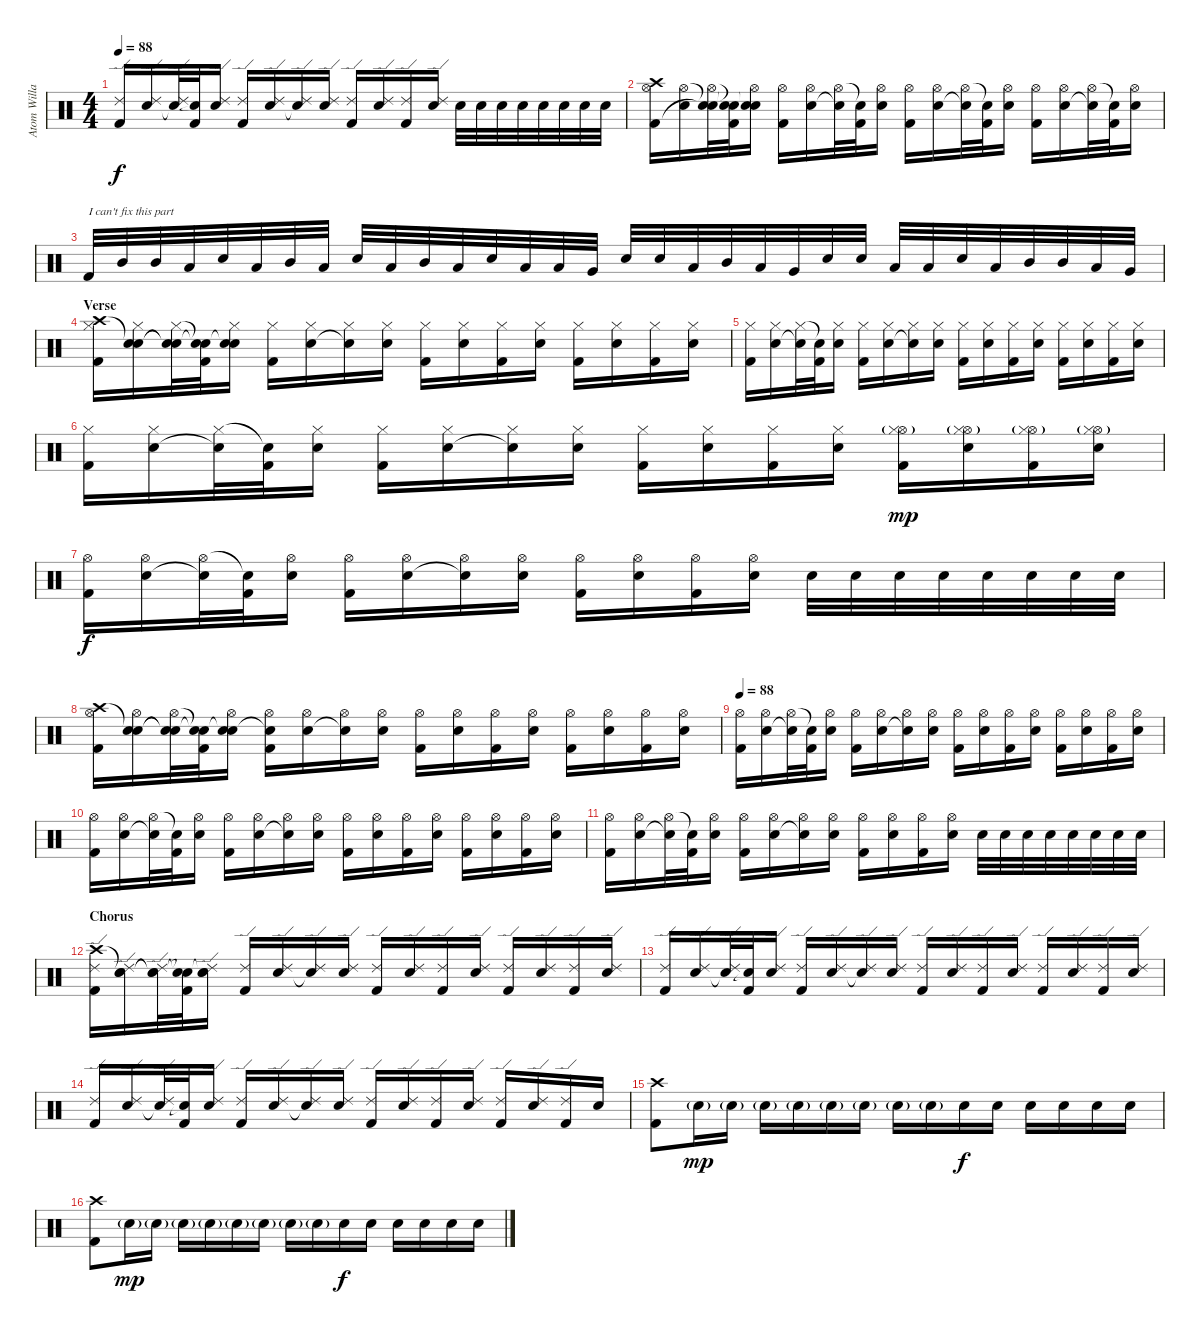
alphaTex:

\track ("Atom Willard (Drums)" "Atom Willa") {instrument percussion}
\staff {score}
\articulation defaults
\ts (4 4)
\tempo 88
\clef neutral
\ks c
("Ride (edge) 2" "Kick (hit) 2").16{dy f} ("Ride (edge) 2" "Electric Snare (hit)").16 ("Ride (edge) 2" "Snare (hit)"{t}).32 ("Snare (hit)"{t} "Kick (hit) 2").32 ("Ride (edge) 2" "Electric Snare (hit)").16 ("Ride (edge) 2" "Kick (hit) 2").16 ("Ride (edge) 2" "Electric Snare (hit)").16 ("Ride (edge) 2" "Snare (hit)"{t}).16 ("Ride (edge) 2" "Electric Snare (hit)").16 ("Ride (edge) 2" "Kick (hit) 2").16 ("Ride (edge) 2" "Electric Snare (hit)").16 ("Ride (edge) 2" "Kick (hit) 2").16 ("Ride (edge) 2" "Electric Snare (hit)").16 "Electric Snare (hit)".32 "Electric Snare (hit)".32 "Electric Snare (hit)".32 "Electric Snare (hit)".32 "Electric Snare (hit)".32 "Electric Snare (hit)".32 "Electric Snare (hit)".32 "Electric Snare (hit)".32 |
("Crash high (hit)" "Hi-Hat (open)" "Kick (hit) 2").16 ("Hi-Hat (open)" "Electric Snare (hit)").16 ("Snare (hit)"{t} "Hi-Hat (open)" "Snare (hit)"{t}).32 ("Snare (hit)"{t} "Snare (hit)"{t} "Kick (hit) 2").32 ("Snare (hit)"{t} "Hi-Hat (open)" "Electric Snare (hit)").16 ("Hi-Hat (open)" "Kick (hit) 2").16 ("Hi-Hat (open)" "Electric Snare (hit)").16 ("Hi-Hat (open)" "Snare (hit)"{t}).32 ("Snare (hit)"{t} "Kick (hit) 2").32 ("Hi-Hat (open)" "Electric Snare (hit)").16 ("Hi-Hat (open)" "Kick (hit) 2").16 ("Hi-Hat (open)" "Electric Snare (hit)").16 ("Hi-Hat (open)" "Snare (hit)"{t}).32 ("Snare (hit)"{t} "Kick (hit) 2").32 ("Hi-Hat (open)" "Electric Snare (hit)").16 ("Hi-Hat (open)" "Kick (hit) 2").16 ("Hi-Hat (open)" "Electric Snare (hit)").16 ("Hi-Hat (open)" "Snare (hit)"{t}).32 ("Snare (hit)"{t} "Kick (hit) 2").32 ("Hi-Hat (open)" "Electric Snare (hit)").16 |
"Kick (hit) 2".32{txt "I can't fix this part"} "Mid Tom (hit)".32 "Mid Tom (hit)".32 "Low Tom (hit)".32 "Electric Snare (hit)".32 "Low Tom (hit)".32 "Mid Tom (hit)".32 "Low Tom (hit)".32 "Electric Snare (hit)".32 "Low Tom (hit)".32 "Mid Tom (hit)".32 "Low Tom (hit)".32 "Electric Snare (hit)".32 "Low Tom (hit)".32 "Low Tom (hit)".32 "Very Low Tom (hit)".32 "Electric Snare (hit)".32 "Electric Snare (hit)".32 "Low Tom (hit)".32 "Mid Tom (hit)".32 "Low Tom (hit)".32 "Very Low Tom (hit)".32 "Electric Snare (hit)".32 "Electric Snare (hit)".32 "Low Tom (hit)".32 "Low Tom (hit)".32 "Electric Snare (hit)".32 "Low Tom (hit)".32 "Mid Tom (hit)".32 "Mid Tom (hit)".32 "Low Tom (hit)".32 "Very Low Tom (hit)".32 |
\section ("" "Verse")
("Crash high (hit)" "Hi-Hat (closed)" "Kick (hit) 2").16 ("Snare (hit)"{t} "Hi-Hat (closed)" "Electric Snare (hit)").16 ("Snare (hit)"{t} "Hi-Hat (closed)" "Snare (hit)"{t}).32 ("Snare (hit)"{t} "Snare (hit)"{t} "Kick (hit) 2").32 ("Snare (hit)"{t} "Hi-Hat (closed)" "Electric Snare (hit)").16 ("Hi-Hat (closed)" "Kick (hit) 2").16 ("Hi-Hat (closed)" "Electric Snare (hit)").16 ("Hi-Hat (closed)" "Snare (hit)"{t}).16 ("Hi-Hat (closed)" "Electric Snare (hit)").16 ("Hi-Hat (closed)" "Kick (hit) 2").16 ("Hi-Hat (closed)" "Electric Snare (hit)").16 ("Hi-Hat (closed)" "Kick (hit) 2").16 ("Hi-Hat (closed)" "Electric Snare (hit)").16 ("Hi-Hat (closed)" "Kick (hit) 2").16 ("Hi-Hat (closed)" "Electric Snare (hit)").16 ("Hi-Hat (closed)" "Kick (hit) 2").16 ("Hi-Hat (closed)" "Electric Snare (hit)").16 |
("Hi-Hat (closed)" "Kick (hit) 2").16 ("Hi-Hat (closed)" "Electric Snare (hit)").16 ("Hi-Hat (closed)" "Snare (hit)"{t}).32 ("Snare (hit)"{t} "Kick (hit) 2").32 ("Hi-Hat (closed)" "Electric Snare (hit)").16 ("Hi-Hat (closed)" "Kick (hit) 2").16 ("Hi-Hat (closed)" "Electric Snare (hit)").16 ("Hi-Hat (closed)" "Snare (hit)"{t}).16 ("Hi-Hat (closed)" "Electric Snare (hit)").16 ("Hi-Hat (closed)" "Kick (hit) 2").16 ("Hi-Hat (closed)" "Electric Snare (hit)").16 ("Hi-Hat (closed)" "Kick (hit) 2").16 ("Hi-Hat (closed)" "Electric Snare (hit)").16 ("Hi-Hat (closed)" "Kick (hit) 2").16 ("Hi-Hat (closed)" "Electric Snare (hit)").16 ("Hi-Hat (closed)" "Kick (hit) 2").16 ("Hi-Hat (closed)" "Electric Snare (hit)").16 |
("Hi-Hat (closed)" "Kick (hit) 2").16 ("Hi-Hat (closed)" "Electric Snare (hit)").16 ("Hi-Hat (closed)" "Snare (hit)"{t}).32 ("Snare (hit)"{t} "Kick (hit) 2").32 ("Hi-Hat (closed)" "Electric Snare (hit)").16 ("Hi-Hat (closed)" "Kick (hit) 2").16 ("Hi-Hat (closed)" "Electric Snare (hit)").16 ("Hi-Hat (closed)" "Snare (hit)"{t}).16 ("Hi-Hat (closed)" "Electric Snare (hit)").16 ("Hi-Hat (closed)" "Kick (hit) 2").16 ("Hi-Hat (closed)" "Electric Snare (hit)").16 ("Hi-Hat (closed)" "Kick (hit) 2").16 ("Hi-Hat (closed)" "Electric Snare (hit)").16 ("Hi-Hat (open)"{g} "Hi-Hat (closed)" "Kick (hit) 2").16{dy mp} ("Hi-Hat (open)"{g} "Hi-Hat (closed)" "Electric Snare (hit)").16 ("Hi-Hat (open)"{g} "Hi-Hat (closed)" "Kick (hit) 2").16 ("Hi-Hat (open)"{g} "Hi-Hat (closed)" "Electric Snare (hit)").16 |
("Hi-Hat (open)" "Kick (hit) 2").16{dy f} ("Hi-Hat (open)" "Electric Snare (hit)").16 ("Hi-Hat (open)" "Snare (hit)"{t}).32 ("Snare (hit)"{t} "Kick (hit) 2").32 ("Hi-Hat (open)" "Electric Snare (hit)").16 ("Hi-Hat (open)" "Kick (hit) 2").16 ("Hi-Hat (open)" "Electric Snare (hit)").16 ("Hi-Hat (open)" "Snare (hit)"{t}).16 ("Hi-Hat (open)" "Electric Snare (hit)").16 ("Hi-Hat (open)" "Kick (hit) 2").16 ("Hi-Hat (open)" "Electric Snare (hit)").16 ("Hi-Hat (open)" "Kick (hit) 2").16 ("Hi-Hat (open)" "Electric Snare (hit)").16 "Electric Snare (hit)".32 "Electric Snare (hit)".32 "Electric Snare (hit)".32 "Electric Snare (hit)".32 "Electric Snare (hit)".32 "Electric Snare (hit)".32 "Electric Snare (hit)".32 "Electric Snare (hit)".32 |
("Crash high (hit)" "Hi-Hat (open)" "Kick (hit) 2").16 ("Snare (hit)"{t} "Hi-Hat (open)" "Electric Snare (hit)").16 ("Snare (hit)"{t} "Hi-Hat (open)" "Snare (hit)"{t}).32 ("Snare (hit)"{t} "Snare (hit)"{t} "Kick (hit) 2").32 ("Snare (hit)"{t} "Hi-Hat (open)" "Electric Snare (hit)").16 ("Snare (hit)"{t} "Hi-Hat (open)" "Kick (hit) 2").16 ("Hi-Hat (open)" "Electric Snare (hit)").16 ("Hi-Hat (open)" "Snare (hit)"{t}).16 ("Hi-Hat (open)" "Electric Snare (hit)").16 ("Hi-Hat (open)" "Kick (hit) 2").16 ("Hi-Hat (open)" "Electric Snare (hit)").16 ("Hi-Hat (open)" "Kick (hit) 2").16 ("Hi-Hat (open)" "Electric Snare (hit)").16 ("Hi-Hat (open)" "Kick (hit) 2").16 ("Hi-Hat (open)" "Electric Snare (hit)").16 ("Hi-Hat (open)" "Kick (hit) 2").16 ("Hi-Hat (open)" "Electric Snare (hit)").16 |
\tempo 88
("Hi-Hat (open)" "Kick (hit) 2").16 ("Hi-Hat (open)" "Electric Snare (hit)").16 ("Hi-Hat (open)" "Snare (hit)"{t}).32 ("Snare (hit)"{t} "Kick (hit) 2").32 ("Hi-Hat (open)" "Electric Snare (hit)").16 ("Hi-Hat (open)" "Kick (hit) 2").16 ("Hi-Hat (open)" "Electric Snare (hit)").16 ("Hi-Hat (open)" "Snare (hit)"{t}).16 ("Hi-Hat (open)" "Electric Snare (hit)").16 ("Hi-Hat (open)" "Kick (hit) 2").16 ("Hi-Hat (open)" "Electric Snare (hit)").16 ("Hi-Hat (open)" "Kick (hit) 2").16 ("Hi-Hat (open)" "Electric Snare (hit)").16 ("Hi-Hat (open)" "Kick (hit) 2").16 ("Hi-Hat (open)" "Electric Snare (hit)").16 ("Hi-Hat (open)" "Kick (hit) 2").16 ("Hi-Hat (open)" "Electric Snare (hit)").16 |
("Hi-Hat (open)" "Kick (hit) 2").16 ("Hi-Hat (open)" "Electric Snare (hit)").16 ("Hi-Hat (open)" "Snare (hit)"{t}).32 ("Snare (hit)"{t} "Kick (hit) 2").32 ("Hi-Hat (open)" "Electric Snare (hit)").16 ("Hi-Hat (open)" "Kick (hit) 2").16 ("Hi-Hat (open)" "Electric Snare (hit)").16 ("Hi-Hat (open)" "Snare (hit)"{t}).16 ("Hi-Hat (open)" "Electric Snare (hit)").16 ("Hi-Hat (open)" "Kick (hit) 2").16 ("Hi-Hat (open)" "Electric Snare (hit)").16 ("Hi-Hat (open)" "Kick (hit) 2").16 ("Hi-Hat (open)" "Electric Snare (hit)").16 ("Hi-Hat (open)" "Kick (hit) 2").16 ("Hi-Hat (open)" "Electric Snare (hit)").16 ("Hi-Hat (open)" "Kick (hit) 2").16 ("Hi-Hat (open)" "Electric Snare (hit)").16 |
("Hi-Hat (open)" "Kick (hit) 2").16 ("Hi-Hat (open)" "Electric Snare (hit)").16 ("Hi-Hat (open)" "Snare (hit)"{t}).32 ("Snare (hit)"{t} "Kick (hit) 2").32 ("Hi-Hat (open)" "Electric Snare (hit)").16 ("Hi-Hat (open)" "Kick (hit) 2").16 ("Hi-Hat (open)" "Electric Snare (hit)").16 ("Hi-Hat (open)" "Snare (hit)"{t}).16 ("Hi-Hat (open)" "Electric Snare (hit)").16 ("Hi-Hat (open)" "Kick (hit) 2").16 ("Hi-Hat (open)" "Electric Snare (hit)").16 ("Hi-Hat (open)" "Kick (hit) 2").16 ("Hi-Hat (open)" "Electric Snare (hit)").16 "Electric Snare (hit)".32 "Electric Snare (hit)".32 "Electric Snare (hit)".32 "Electric Snare (hit)".32 "Electric Snare (hit)".32 "Electric Snare (hit)".32 "Electric Snare (hit)".32 "Electric Snare (hit)".32 |
\section ("" "Chorus")
("Crash high (hit)" "Ride (edge) 2" "Kick (hit) 2").16 ("Snare (hit)"{t} "Ride (edge) 2" "Electric Snare (hit)").16 ("Snare (hit)"{t} "Ride (edge) 2" "Snare (hit)"{t}).32 ("Snare (hit)"{t} "Snare (hit)"{t} "Kick (hit) 2").32 ("Snare (hit)"{t} "Ride (edge) 2" "Electric Snare (hit)").16 ("Ride (edge) 2" "Kick (hit) 2").16 ("Ride (edge) 2" "Electric Snare (hit)").16 ("Ride (edge) 2" "Snare (hit)"{t}).16 ("Ride (edge) 2" "Electric Snare (hit)").16 ("Ride (edge) 2" "Kick (hit) 2").16 ("Ride (edge) 2" "Electric Snare (hit)").16 ("Ride (edge) 2" "Kick (hit) 2").16 ("Ride (edge) 2" "Electric Snare (hit)").16 ("Ride (edge) 2" "Kick (hit) 2").16 ("Ride (edge) 2" "Electric Snare (hit)").16 ("Ride (edge) 2" "Kick (hit) 2").16 ("Ride (edge) 2" "Electric Snare (hit)").16 |
("Ride (edge) 2" "Kick (hit) 2").16 ("Ride (edge) 2" "Electric Snare (hit)").16 ("Ride (edge) 2" "Snare (hit)"{t}).32 ("Snare (hit)"{t} "Kick (hit) 2").32 ("Ride (edge) 2" "Electric Snare (hit)").16 ("Ride (edge) 2" "Kick (hit) 2").16 ("Ride (edge) 2" "Electric Snare (hit)").16 ("Ride (edge) 2" "Snare (hit)"{t}).16 ("Ride (edge) 2" "Electric Snare (hit)").16 ("Ride (edge) 2" "Kick (hit) 2").16 ("Ride (edge) 2" "Electric Snare (hit)").16 ("Ride (edge) 2" "Kick (hit) 2").16 ("Ride (edge) 2" "Electric Snare (hit)").16 ("Ride (edge) 2" "Kick (hit) 2").16 ("Ride (edge) 2" "Electric Snare (hit)").16 ("Ride (edge) 2" "Kick (hit) 2").16 ("Ride (edge) 2" "Electric Snare (hit)").16 |
("Ride (edge) 2" "Kick (hit) 2").16 ("Ride (edge) 2" "Electric Snare (hit)").16 ("Ride (edge) 2" "Snare (hit)"{t}).32 ("Snare (hit)"{t} "Kick (hit) 2").32 ("Ride (edge) 2" "Electric Snare (hit)").16 ("Ride (edge) 2" "Kick (hit) 2").16 ("Ride (edge) 2" "Electric Snare (hit)").16 ("Ride (edge) 2" "Snare (hit)"{t}).16 ("Ride (edge) 2" "Electric Snare (hit)").16 ("Ride (edge) 2" "Kick (hit) 2").16 ("Ride (edge) 2" "Electric Snare (hit)").16 ("Ride (edge) 2" "Kick (hit) 2").16 ("Ride (edge) 2" "Electric Snare (hit)").16 ("Ride (edge) 2" "Kick (hit) 2").16 ("Ride (edge) 2" "Electric Snare (hit)").16 ("Ride (edge) 2" "Kick (hit) 2").16 "Electric Snare (hit)".16 |
("Crash high (hit)" "Kick (hit) 2").8 "Electric Snare (hit)"{g}.16{dy mp} "Electric Snare (hit)"{g}.16 "Electric Snare (hit)"{g}.16 "Electric Snare (hit)"{g}.16 "Electric Snare (hit)"{g}.16 "Electric Snare (hit)"{g}.16 "Electric Snare (hit)"{g}.16 "Electric Snare (hit)"{g}.16 "Electric Snare (hit)".16{dy f} "Electric Snare (hit)".16 "Electric Snare (hit)".16 "Electric Snare (hit)".16 "Electric Snare (hit)".16 "Electric Snare (hit)".16 |
("Crash high (hit)" "Kick (hit) 2").8 "Electric Snare (hit)"{g}.16{dy mp} "Electric Snare (hit)"{g}.16 "Electric Snare (hit)"{g}.16 "Electric Snare (hit)"{g}.16 "Electric Snare (hit)"{g}.16 "Electric Snare (hit)"{g}.16 "Electric Snare (hit)"{g}.16 "Electric Snare (hit)"{g}.16 "Electric Snare (hit)".16{dy f} "Electric Snare (hit)".16 "Electric Snare (hit)".16 "Electric Snare (hit)".16 "Electric Snare (hit)".16 "Electric Snare (hit)".16
